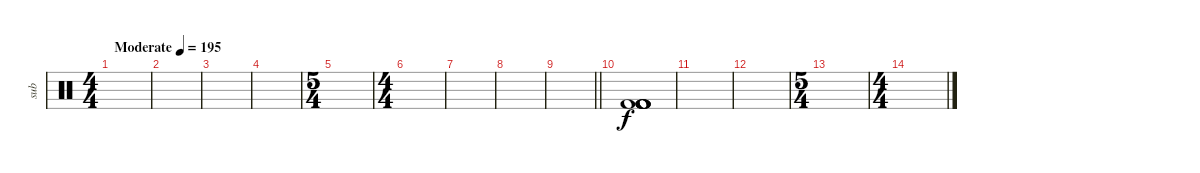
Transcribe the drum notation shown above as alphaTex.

\track ("sub" "sub") {instrument percussion}
\staff {score}
\articulation defaults
\ts (4 4)
\tempo (195 "Moderate")
\clef neutral
\ks c
|
|
|
|
\ts (5 4)
|
\ts (4 4)
|
|
|
\barLineRight lightlight
|
\section ("" "")
("Kick (hit) 2" "Kick (hit) 2" "Kick (hit) 2" "Kick (hit) 2" "Kick (hit) 2" "Kick (hit) 2").1 |
|
|
\ts (5 4)
|
\ts (4 4)
